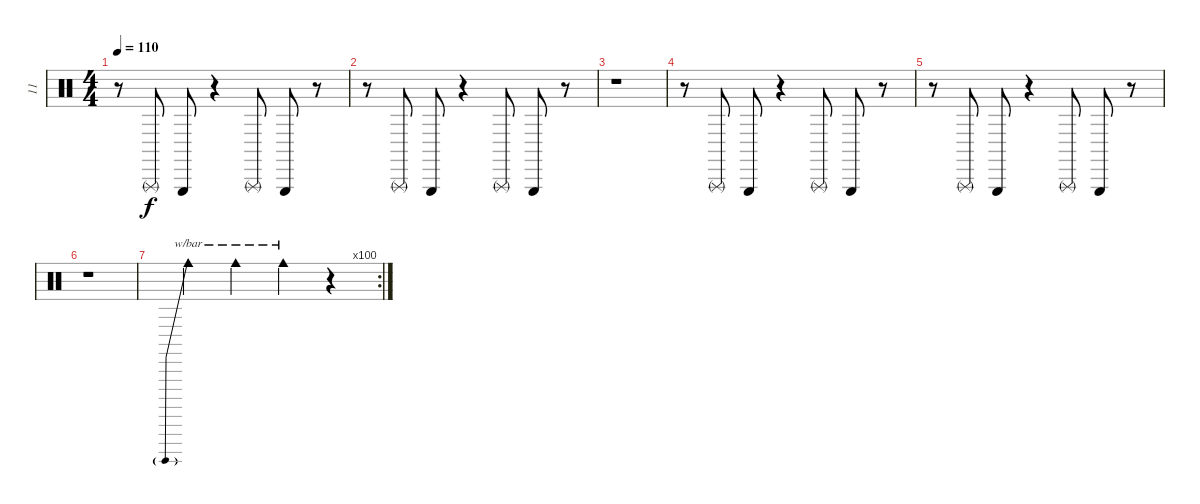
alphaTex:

\track ("11" "11") {instrument percussion}
\staff {score}
\articulation defaults
\ts (4 4)
\tempo 110
\clef neutral
\ks c
r.8{dy f} "Triangle (rnute)".8 "Triangle (hit)".8 r.4 "Triangle (rnute)".8 "Triangle (hit)".8 r.8 |
r.8 "Triangle (rnute)".8 "Triangle (hit)".8 r.4 "Triangle (rnute)".8 "Triangle (hit)".8 r.8 |
r.1 |
r.8 "Triangle (rnute)".8 "Triangle (hit)".8 r.4 "Triangle (rnute)".8 "Triangle (hit)".8 r.8 |
r.8 "Triangle (rnute)".8 "Triangle (hit)".8 r.4 "Triangle (rnute)".8 "Triangle (hit)".8 r.8 |
r.1 |
\rc 100 "Cowbell medium (hit)".4{tbe (predive default 0 8 60 8)} "Cowbell medium (hit)".4{tbe (hold default 0 8 60 8)} "Cowbell medium (hit)".4{tbe (hold default 0 8 60 8)}
r.4
